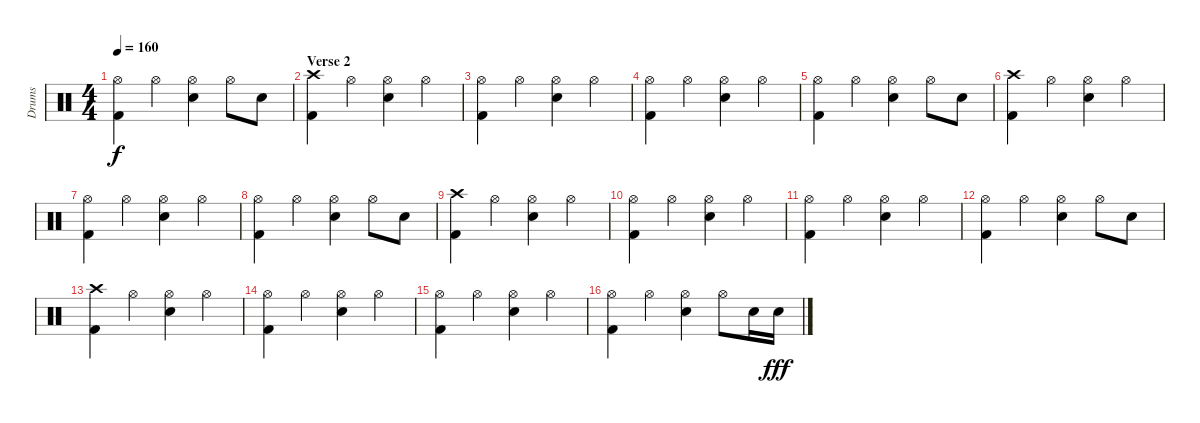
\track ("Drums" "Drums") {instrument percussion}
\staff {score}
\articulation defaults
\ts (4 4)
\tempo 160
\clef neutral
\ks c
("Hi-Hat (open)" "Kick (hit) 2").4{dy f} "Hi-Hat (open)".4 ("Hi-Hat (open)" "Electric Snare (hit)").4 "Hi-Hat (open)".8 "Electric Snare (hit)".8 |
\section ("" "Verse 2")
("Crash high (hit)" "Kick (hit) 2").4 "Hi-Hat (open)".4 ("Hi-Hat (open)" "Electric Snare (hit)").4 "Hi-Hat (open)".4 |
("Hi-Hat (open)" "Kick (hit) 2").4 "Hi-Hat (open)".4 ("Hi-Hat (open)" "Electric Snare (hit)").4 "Hi-Hat (open)".4 |
("Hi-Hat (open)" "Kick (hit) 2").4 "Hi-Hat (open)".4 ("Hi-Hat (open)" "Electric Snare (hit)").4 "Hi-Hat (open)".4 |
("Hi-Hat (open)" "Kick (hit) 2").4 "Hi-Hat (open)".4 ("Hi-Hat (open)" "Electric Snare (hit)").4 "Hi-Hat (open)".8 "Electric Snare (hit)".8 |
("Crash high (hit)" "Kick (hit) 2").4 "Hi-Hat (open)".4 ("Hi-Hat (open)" "Electric Snare (hit)").4 "Hi-Hat (open)".4 |
("Hi-Hat (open)" "Kick (hit) 2").4 "Hi-Hat (open)".4 ("Hi-Hat (open)" "Electric Snare (hit)").4 "Hi-Hat (open)".4 |
("Hi-Hat (open)" "Kick (hit) 2").4 "Hi-Hat (open)".4 ("Hi-Hat (open)" "Electric Snare (hit)").4 "Hi-Hat (open)".8 "Electric Snare (hit)".8 |
("Crash high (hit)" "Kick (hit) 2").4 "Hi-Hat (open)".4 ("Hi-Hat (open)" "Electric Snare (hit)").4 "Hi-Hat (open)".4 |
("Hi-Hat (open)" "Kick (hit) 2").4 "Hi-Hat (open)".4 ("Hi-Hat (open)" "Electric Snare (hit)").4 "Hi-Hat (open)".4 |
("Hi-Hat (open)" "Kick (hit) 2").4 "Hi-Hat (open)".4 ("Hi-Hat (open)" "Electric Snare (hit)").4 "Hi-Hat (open)".4 |
("Hi-Hat (open)" "Kick (hit) 2").4 "Hi-Hat (open)".4 ("Hi-Hat (open)" "Electric Snare (hit)").4 "Hi-Hat (open)".8 "Electric Snare (hit)".8 |
("Crash high (hit)" "Kick (hit) 2").4 "Hi-Hat (open)".4 ("Hi-Hat (open)" "Electric Snare (hit)").4 "Hi-Hat (open)".4 |
("Hi-Hat (open)" "Kick (hit) 2").4 "Hi-Hat (open)".4 ("Hi-Hat (open)" "Electric Snare (hit)").4 "Hi-Hat (open)".4 |
("Hi-Hat (open)" "Kick (hit) 2").4 "Hi-Hat (open)".4 ("Hi-Hat (open)" "Electric Snare (hit)").4 "Hi-Hat (open)".4 |
("Hi-Hat (open)" "Kick (hit) 2").4 "Hi-Hat (open)".4 ("Hi-Hat (open)" "Electric Snare (hit)").4 "Hi-Hat (open)".8 "Electric Snare (hit)".16 "Electric Snare (hit)".16{dy fff}
